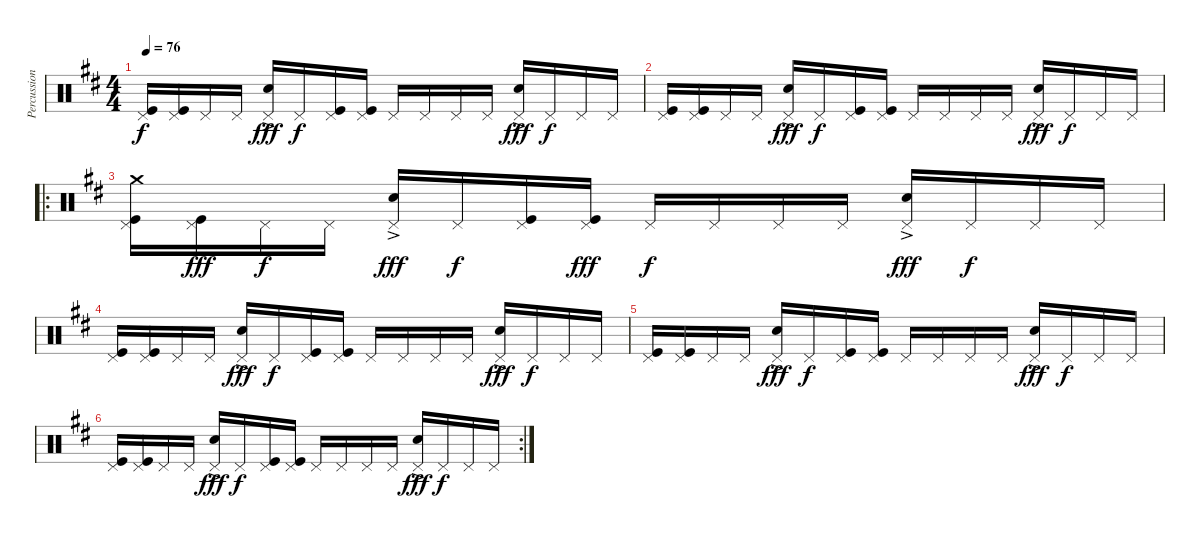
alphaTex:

\track ("Percussion" "Percussion") {instrument percussion}
\staff {score}
\articulation defaults
\ts (4 4)
\tempo 76
\clef neutral
\ks d
("Kick (hit)" "Pedal Hi-Hat (hit)").16{dy f} ("Kick (hit)" "Pedal Hi-Hat (hit)").16 "Pedal Hi-Hat (hit)".16 "Pedal Hi-Hat (hit)".16 ("Electric Snare (hit)"{ac} "Pedal Hi-Hat (hit)").16{dy fff} "Pedal Hi-Hat (hit)".16{dy f} ("Kick (hit)" "Pedal Hi-Hat (hit)").16 ("Kick (hit)" "Pedal Hi-Hat (hit)").16 "Pedal Hi-Hat (hit)".16 "Pedal Hi-Hat (hit)".16 "Pedal Hi-Hat (hit)".16 "Pedal Hi-Hat (hit)".16 ("Electric Snare (hit)"{ac} "Pedal Hi-Hat (hit)").16{dy fff} "Pedal Hi-Hat (hit)".16{dy f} "Pedal Hi-Hat (hit)".16 "Pedal Hi-Hat (hit)".16 |
("Kick (hit)" "Pedal Hi-Hat (hit)").16 ("Kick (hit)" "Pedal Hi-Hat (hit)").16 "Pedal Hi-Hat (hit)".16 "Pedal Hi-Hat (hit)".16 ("Electric Snare (hit)"{ac} "Pedal Hi-Hat (hit)").16{dy fff} "Pedal Hi-Hat (hit)".16{dy f} ("Kick (hit)" "Pedal Hi-Hat (hit)").16 ("Kick (hit)" "Pedal Hi-Hat (hit)").16 "Pedal Hi-Hat (hit)".16 "Pedal Hi-Hat (hit)".16 "Pedal Hi-Hat (hit)".16 "Pedal Hi-Hat (hit)".16 ("Electric Snare (hit)"{ac} "Pedal Hi-Hat (hit)").16{dy fff} "Pedal Hi-Hat (hit)".16{dy f} "Pedal Hi-Hat (hit)".16 "Pedal Hi-Hat (hit)".16 |
\ro
("Kick (hit)" "Pedal Hi-Hat (hit)" "Crash medium (hit)").16 ("Kick (hit)" "Pedal Hi-Hat (hit)").16{dy fff} "Pedal Hi-Hat (hit)".16{dy f} "Pedal Hi-Hat (hit)".16 ("Electric Snare (hit)"{ac} "Pedal Hi-Hat (hit)").16{dy fff} "Pedal Hi-Hat (hit)".16{dy f} ("Kick (hit)" "Pedal Hi-Hat (hit)").16 ("Kick (hit)" "Pedal Hi-Hat (hit)").16{dy fff} "Pedal Hi-Hat (hit)".16{dy f} "Pedal Hi-Hat (hit)".16 "Pedal Hi-Hat (hit)".16 "Pedal Hi-Hat (hit)".16 ("Electric Snare (hit)"{ac} "Pedal Hi-Hat (hit)").16{dy fff} "Pedal Hi-Hat (hit)".16{dy f} "Pedal Hi-Hat (hit)".16 "Pedal Hi-Hat (hit)".16 |
("Kick (hit)" "Pedal Hi-Hat (hit)").16 ("Kick (hit)" "Pedal Hi-Hat (hit)").16 "Pedal Hi-Hat (hit)".16 "Pedal Hi-Hat (hit)".16 ("Electric Snare (hit)"{ac} "Pedal Hi-Hat (hit)").16{dy fff} "Pedal Hi-Hat (hit)".16{dy f} ("Kick (hit)" "Pedal Hi-Hat (hit)").16 ("Kick (hit)" "Pedal Hi-Hat (hit)").16 "Pedal Hi-Hat (hit)".16 "Pedal Hi-Hat (hit)".16 "Pedal Hi-Hat (hit)".16 "Pedal Hi-Hat (hit)".16 ("Electric Snare (hit)"{ac} "Pedal Hi-Hat (hit)").16{dy fff} "Pedal Hi-Hat (hit)".16{dy f} "Pedal Hi-Hat (hit)".16 "Pedal Hi-Hat (hit)".16 |
("Kick (hit)" "Pedal Hi-Hat (hit)").16 ("Kick (hit)" "Pedal Hi-Hat (hit)").16 "Pedal Hi-Hat (hit)".16 "Pedal Hi-Hat (hit)".16 ("Electric Snare (hit)"{ac} "Pedal Hi-Hat (hit)").16{dy fff} "Pedal Hi-Hat (hit)".16{dy f} ("Kick (hit)" "Pedal Hi-Hat (hit)").16 ("Kick (hit)" "Pedal Hi-Hat (hit)").16 "Pedal Hi-Hat (hit)".16 "Pedal Hi-Hat (hit)".16 "Pedal Hi-Hat (hit)".16 "Pedal Hi-Hat (hit)".16 ("Electric Snare (hit)"{ac} "Pedal Hi-Hat (hit)").16{dy fff} "Pedal Hi-Hat (hit)".16{dy f} "Pedal Hi-Hat (hit)".16 "Pedal Hi-Hat (hit)".16 |
\rc 2
("Kick (hit)" "Pedal Hi-Hat (hit)").16 ("Kick (hit)" "Pedal Hi-Hat (hit)").16 "Pedal Hi-Hat (hit)".16 "Pedal Hi-Hat (hit)".16 ("Electric Snare (hit)"{ac} "Pedal Hi-Hat (hit)").16{dy fff} "Pedal Hi-Hat (hit)".16{dy f} ("Kick (hit)" "Pedal Hi-Hat (hit)").16 ("Kick (hit)" "Pedal Hi-Hat (hit)").16 "Pedal Hi-Hat (hit)".16 "Pedal Hi-Hat (hit)".16 "Pedal Hi-Hat (hit)".16 "Pedal Hi-Hat (hit)".16 ("Electric Snare (hit)"{ac} "Pedal Hi-Hat (hit)").16{dy fff} "Pedal Hi-Hat (hit)".16{dy f} "Pedal Hi-Hat (hit)".16 "Pedal Hi-Hat (hit)".16
